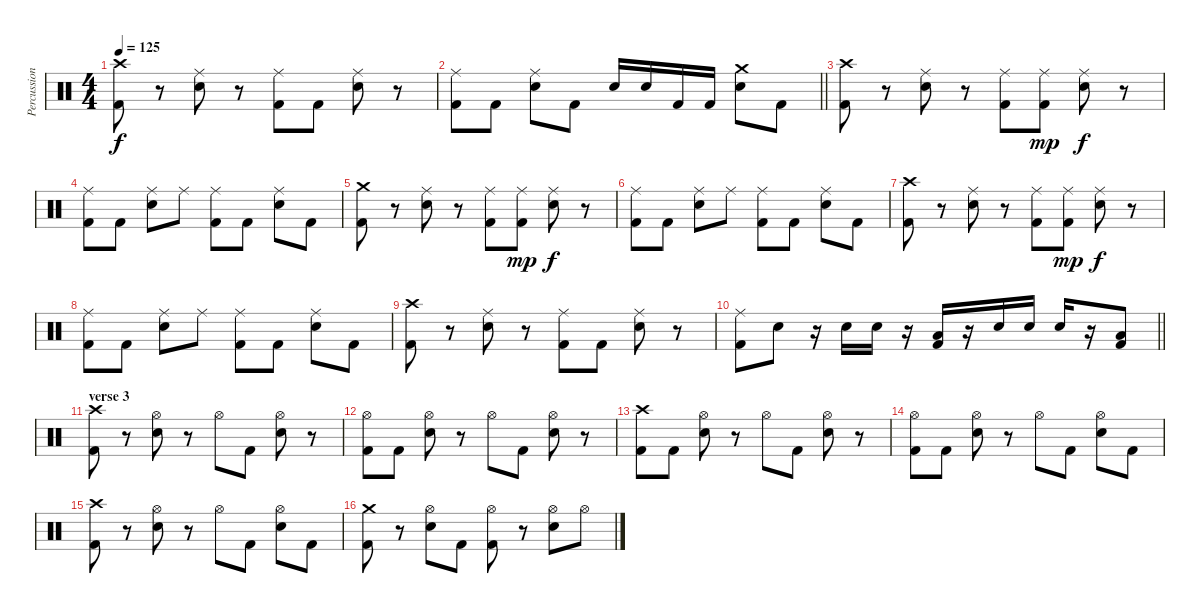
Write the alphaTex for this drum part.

\track ("Percussion" "Percussion") {instrument percussion}
\staff {score}
\articulation defaults
\ts (4 4)
\tempo 125
\clef neutral
\ks c
("Crash high (hit)" "Kick (hit) 2").8{dy f} r.8 ("Ride (middle)" "Snare (hit) 2").8 r.8 ("Ride (middle)" "Kick (hit) 2").8 "Kick (hit) 2".8 ("Ride (middle)" "Snare (hit) 2").8 r.8 |
\barLineRight lightlight
("Ride (middle)" "Kick (hit) 2").8 "Kick (hit) 2".8 ("Ride (middle)" "Snare (hit) 2").8 "Kick (hit) 2".8 "Snare (hit) 2".16 "Snare (hit) 2".16 "Kick (hit) 2".16 "Kick (hit) 2".16 ("Crash medium (hit)" "Snare (hit) 2").8 "Kick (hit) 2".8 |
("Crash high (hit)" "Kick (hit) 2").8 r.8 ("Ride (middle)" "Snare (hit) 2").8 r.8 ("Ride (middle)" "Kick (hit) 2").8 ("Ride (middle)" "Kick (hit) 2").8{dy mp} ("Ride (middle)" "Snare (hit) 2").8{dy f} r.8 |
("Ride (middle)" "Kick (hit) 2").8 "Kick (hit) 2".8 ("Ride (middle)" "Snare (hit) 2").8 "Ride (middle)".8 ("Ride (middle)" "Kick (hit) 2").8 "Kick (hit) 2".8 ("Ride (middle)" "Snare (hit) 2").8 "Kick (hit) 2".8 |
("Crash medium (hit)" "Kick (hit) 2").8 r.8 ("Ride (middle)" "Snare (hit) 2").8 r.8 ("Ride (middle)" "Kick (hit) 2").8 ("Ride (middle)" "Kick (hit) 2").8{dy mp} ("Ride (middle)" "Snare (hit) 2").8{dy f} r.8 |
("Ride (middle)" "Kick (hit) 2").8 "Kick (hit) 2".8 ("Ride (middle)" "Snare (hit) 2").8 "Ride (middle)".8 ("Ride (middle)" "Kick (hit) 2").8 "Kick (hit) 2".8 ("Ride (middle)" "Snare (hit) 2").8 "Kick (hit) 2".8 |
("Crash high (hit)" "Kick (hit) 2").8 r.8 ("Ride (middle)" "Snare (hit) 2").8 r.8 ("Ride (middle)" "Kick (hit) 2").8 ("Ride (middle)" "Kick (hit) 2").8{dy mp} ("Ride (middle)" "Snare (hit) 2").8{dy f} r.8 |
("Ride (middle)" "Kick (hit) 2").8 "Kick (hit) 2".8 ("Ride (middle)" "Snare (hit) 2").8 "Ride (middle)".8 ("Ride (middle)" "Kick (hit) 2").8 "Kick (hit) 2".8 ("Ride (middle)" "Snare (hit) 2").8 "Kick (hit) 2".8 |
("Crash high (hit)" "Kick (hit) 2").8 r.8 ("Ride (middle)" "Snare (hit) 2").8 r.8 ("Ride (middle)" "Kick (hit) 2").8 "Kick (hit) 2".8 ("Ride (middle)" "Snare (hit) 2").8 r.8 |
\barLineRight lightlight
("Ride (middle)" "Kick (hit) 2").8 "Snare (hit) 2".8 r.16 "Snare (hit) 2".16 "Snare (hit) 2".16 r.16 ("Low Tom (hit)" "Kick (hit) 2").16 r.16 "Snare (hit) 2".16 "Snare (hit) 2".16 "Snare (hit) 2".16 r.16 ("Low Tom (hit)" "Kick (hit) 2").8 |
\section ("" "verse 3")
("Crash high (hit)" "Kick (hit) 2").8 r.8 ("Hi-Hat (open)" "Snare (hit) 2").8 r.8 "Hi-Hat (open)".8 "Kick (hit) 2".8 ("Hi-Hat (open)" "Snare (hit) 2").8 r.8 |
("Hi-Hat (open)" "Kick (hit) 2").8 "Kick (hit) 2".8 ("Hi-Hat (open)" "Snare (hit) 2").8 r.8 "Hi-Hat (open)".8 "Kick (hit) 2".8 ("Hi-Hat (open)" "Snare (hit) 2").8 r.8 |
("Crash high (hit)" "Kick (hit) 2").8 "Kick (hit) 2".8 ("Hi-Hat (open)" "Snare (hit) 2").8 r.8 "Hi-Hat (open)".8 "Kick (hit) 2".8 ("Hi-Hat (open)" "Snare (hit) 2").8 r.8 |
("Hi-Hat (open)" "Kick (hit) 2").8 "Kick (hit) 2".8 ("Hi-Hat (open)" "Snare (hit) 2").8 r.8 "Hi-Hat (open)".8 "Kick (hit) 2".8 ("Hi-Hat (open)" "Snare (hit) 2").8 "Kick (hit) 2".8 |
("Crash high (hit)" "Kick (hit) 2").8 r.8 ("Hi-Hat (open)" "Snare (hit) 2").8 r.8 "Hi-Hat (open)".8 "Kick (hit) 2".8 ("Hi-Hat (open)" "Snare (hit) 2").8 "Kick (hit) 2".8 |
("Crash medium (hit)" "Kick (hit) 2").8 r.8 ("Hi-Hat (open)" "Snare (hit) 2").8 "Kick (hit) 2".8 ("Hi-Hat (open)" "Kick (hit) 2").8 r.8 ("Hi-Hat (open)" "Snare (hit) 2").8 "Hi-Hat (open)".8
